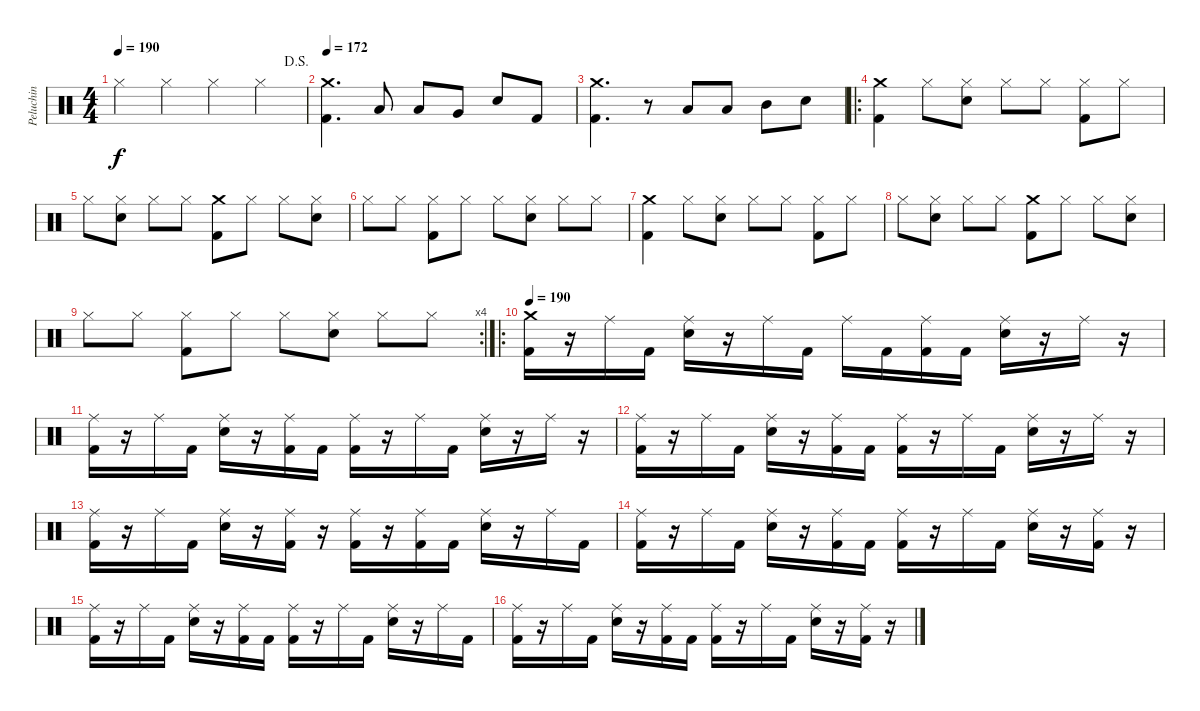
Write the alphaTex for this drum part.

\track ("Peluchin" "Peluchin") {instrument percussion}
\staff {score}
\articulation defaults
\ts (4 4)
\jump dalsegno
\tempo 190
\clef neutral
\ks c "Hi-Hat (closed)".4{dy f} "Hi-Hat (closed)".4 "Hi-Hat (closed)".4 "Hi-Hat (closed)".4
|
\tempo 172
("Kick (hit) 2" "Crash medium (hit)").4{d} "Low Floor Tom (hit)".8 "Low Floor Tom (hit)".8 "Very Low Tom (hit)".8 "Electric Snare (hit)".8 "Kick (hit) 2".8 |
("Kick (hit) 2" "Crash medium (hit)").4{d} r.8 "Low Tom (hit)".8 "Low Tom (hit)".8 "Mid Tom (hit)".8 "Electric Snare (hit)".8 |
\ro
("Kick (hit) 2" "Crash medium (hit)").4 "Hi-Hat (closed)".8 ("Electric Snare (hit)" "Hi-Hat (closed)").8 "Hi-Hat (closed)".8 "Hi-Hat (closed)".8 ("Kick (hit) 2" "Hi-Hat (closed)").8 "Hi-Hat (closed)".8 |
"Hi-Hat (closed)".8 ("Electric Snare (hit)" "Hi-Hat (closed)").8 "Hi-Hat (closed)".8 "Hi-Hat (closed)".8 ("Kick (hit) 2" "Crash medium (hit)").8 "Hi-Hat (closed)".8 "Hi-Hat (closed)".8 ("Electric Snare (hit)" "Hi-Hat (closed)").8 |
"Hi-Hat (closed)".8 "Hi-Hat (closed)".8 ("Kick (hit) 2" "Hi-Hat (closed)").8 "Hi-Hat (closed)".8 "Hi-Hat (closed)".8 ("Electric Snare (hit)" "Hi-Hat (closed)").8 "Hi-Hat (closed)".8 "Hi-Hat (closed)".8 |
("Kick (hit) 2" "Crash medium (hit)").4 "Hi-Hat (closed)".8 ("Electric Snare (hit)" "Hi-Hat (closed)").8 "Hi-Hat (closed)".8 "Hi-Hat (closed)".8 ("Kick (hit) 2" "Hi-Hat (closed)").8 "Hi-Hat (closed)".8 |
"Hi-Hat (closed)".8 ("Electric Snare (hit)" "Hi-Hat (closed)").8 "Hi-Hat (closed)".8 "Hi-Hat (closed)".8 ("Kick (hit) 2" "Crash medium (hit)").8 "Hi-Hat (closed)".8 "Hi-Hat (closed)".8 ("Electric Snare (hit)" "Hi-Hat (closed)").8 |
\rc 4 "Hi-Hat (closed)".8 "Hi-Hat (closed)".8
("Kick (hit) 2" "Hi-Hat (closed)").8 "Hi-Hat (closed)".8 "Hi-Hat (closed)".8 ("Electric Snare (hit)" "Hi-Hat (closed)").8 "Hi-Hat (closed)".8 "Hi-Hat (closed)".8 |
\ro
\tempo 190
("Crash medium (hit)" "Kick (hit) 2").16 r.16 "Ride (middle)".16 "Kick (hit) 2".16 ("Electric Snare (hit)" "Ride (middle)").16 r.16 "Ride (middle)".16 "Kick (hit) 2".16 "Ride (middle)".16 "Kick (hit) 2".16 ("Kick (hit) 2" "Ride (middle)").16 "Kick (hit) 2".16 ("Electric Snare (hit)" "Ride (middle)").16 r.16 "Ride (middle)".16 r.16 |
("Kick (hit) 2" "Ride (middle)").16 r.16 "Ride (middle)".16 "Kick (hit) 2".16 ("Electric Snare (hit)" "Ride (middle)").16 r.16 ("Kick (hit) 2" "Ride (middle)").16 "Kick (hit) 2".16 ("Kick (hit) 2" "Ride (middle)").16 r.16 "Ride (middle)".16 "Kick (hit) 2".16 ("Electric Snare (hit)" "Ride (middle)").16 r.16 "Ride (middle)".16 r.16 |
("Kick (hit) 2" "Ride (middle)").16 r.16 "Ride (middle)".16 "Kick (hit) 2".16 ("Electric Snare (hit)" "Ride (middle)").16 r.16 ("Kick (hit) 2" "Ride (middle)").16 "Kick (hit) 2".16 ("Kick (hit) 2" "Ride (middle)").16 r.16 "Ride (middle)".16 "Kick (hit) 2".16 ("Electric Snare (hit)" "Ride (middle)").16 r.16 "Ride (middle)".16 r.16 |
("Kick (hit) 2" "Ride (middle)").16 r.16 "Ride (middle)".16 "Kick (hit) 2".16 ("Electric Snare (hit)" "Ride (middle)").16 r.16 ("Kick (hit) 2" "Ride (middle)").16 r.16 ("Kick (hit) 2" "Ride (middle)").16 r.16 ("Kick (hit) 2" "Ride (middle)").16 "Kick (hit) 2".16 ("Electric Snare (hit)" "Ride (middle)").16 r.16 "Ride (middle)".16 "Kick (hit) 2".16 |
("Kick (hit) 2" "Ride (middle)").16 r.16 "Ride (middle)".16 "Kick (hit) 2".16 ("Electric Snare (hit)" "Ride (middle)").16 r.16 ("Kick (hit) 2" "Ride (middle)").16 "Kick (hit) 2".16 ("Kick (hit) 2" "Ride (middle)").16 r.16 "Ride (middle)".16 "Kick (hit) 2".16 ("Electric Snare (hit)" "Ride (middle)").16 r.16 ("Kick (hit) 2" "Ride (middle)").16 r.16 |
("Kick (hit) 2" "Ride (middle)").16 r.16 "Ride (middle)".16 "Kick (hit) 2".16 ("Electric Snare (hit)" "Ride (middle)").16 r.16 ("Kick (hit) 2" "Ride (middle)").16 "Kick (hit) 2".16 ("Kick (hit) 2" "Ride (middle)").16 r.16 "Ride (middle)".16 "Kick (hit) 2".16 ("Electric Snare (hit)" "Ride (middle)").16 r.16 "Ride (middle)".16 "Kick (hit) 2".16 |
("Kick (hit) 2" "Ride (middle)").16 r.16 "Ride (middle)".16 "Kick (hit) 2".16 ("Electric Snare (hit)" "Ride (middle)").16 r.16 ("Kick (hit) 2" "Ride (middle)").16 "Kick (hit) 2".16 ("Kick (hit) 2" "Ride (middle)").16 r.16 "Ride (middle)".16 "Kick (hit) 2".16 ("Electric Snare (hit)" "Ride (middle)").16 r.16 ("Kick (hit) 2" "Ride (middle)").16 r.16
